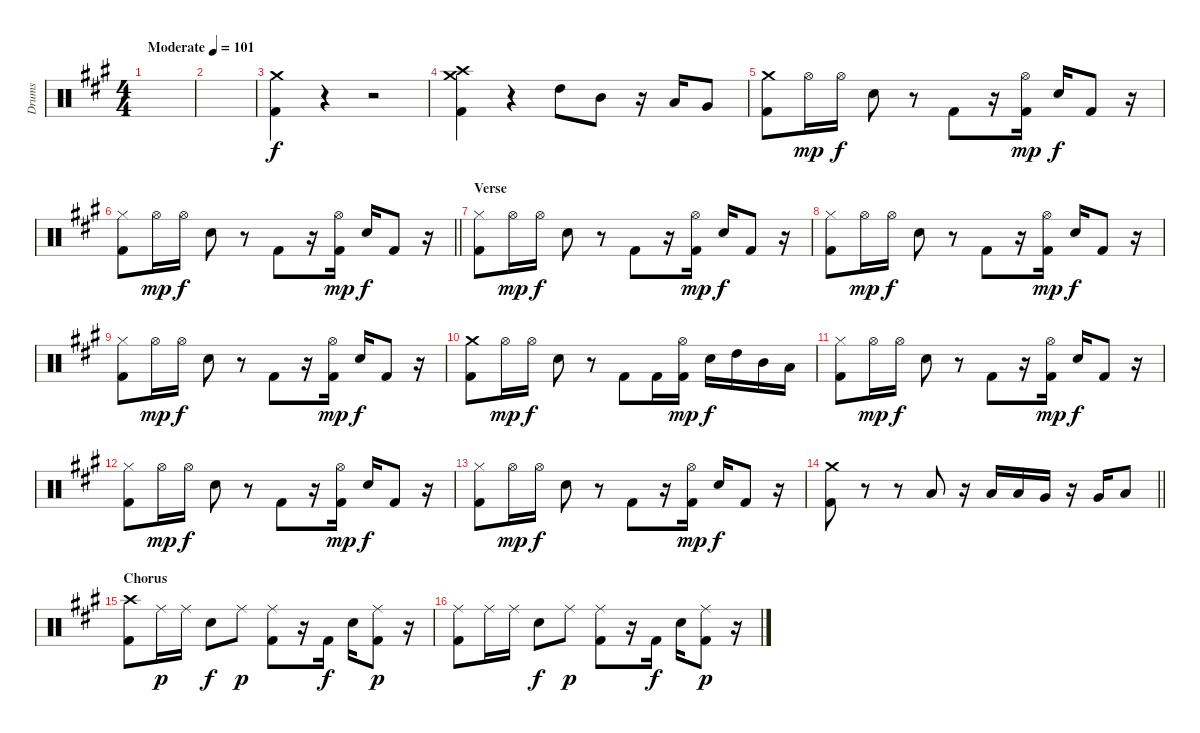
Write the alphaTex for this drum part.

\track ("Drums" "Drums") {instrument percussion}
\staff {score}
\articulation defaults
\ts (4 4)
\tempo (101 "Moderate")
\clef neutral
\ks a
|
|
("Crash medium (hit)" "Kick (hit) 2").4 r.4 r.2 |
("Crash medium (hit)" "Crash high (hit)" "Kick (hit) 2").4 r.4 "High Tom (hit)".8 "Mid Tom (hit)".8 r.16 "Low Tom (hit)".16 "Very Low Tom (hit)".8 |
("Crash medium (hit)" "Kick (hit) 2").8 "Hi-Hat (open)".16{dy mp} "Hi-Hat (open)".16{dy f} "Electric Snare (hit)".8 r.8 "Kick (hit) 2".8 r.16 ("Hi-Hat (open)" "Kick (hit) 2").16{dy mp} "Electric Snare (hit)".16{dy f} "Kick (hit) 2".8 r.16 |
\barLineRight lightlight
("Hi-Hat (closed)" "Kick (hit) 2").8 "Hi-Hat (open)".16{dy mp} "Hi-Hat (open)".16{dy f} "Electric Snare (hit)".8 r.8 "Kick (hit) 2".8 r.16 ("Hi-Hat (open)" "Kick (hit) 2").16{dy mp} "Electric Snare (hit)".16{dy f} "Kick (hit) 2".8 r.16 |
\section ("" "Verse")
("Hi-Hat (closed)" "Kick (hit) 2").8 "Hi-Hat (open)".16{dy mp} "Hi-Hat (open)".16{dy f} "Electric Snare (hit)".8 r.8 "Kick (hit) 2".8 r.16 ("Hi-Hat (open)" "Kick (hit) 2").16{dy mp} "Electric Snare (hit)".16{dy f} "Kick (hit) 2".8 r.16 |
("Hi-Hat (closed)" "Kick (hit) 2").8 "Hi-Hat (open)".16{dy mp} "Hi-Hat (open)".16{dy f} "Electric Snare (hit)".8 r.8 "Kick (hit) 2".8 r.16 ("Hi-Hat (open)" "Kick (hit) 2").16{dy mp} "Electric Snare (hit)".16{dy f} "Kick (hit) 2".8 r.16 |
("Hi-Hat (closed)" "Kick (hit) 2").8 "Hi-Hat (open)".16{dy mp} "Hi-Hat (open)".16{dy f} "Electric Snare (hit)".8 r.8 "Kick (hit) 2".8 r.16 ("Hi-Hat (open)" "Kick (hit) 2").16{dy mp} "Electric Snare (hit)".16{dy f} "Kick (hit) 2".8 r.16 |
("Crash medium (hit)" "Kick (hit) 2").8 "Hi-Hat (open)".16{dy mp} "Hi-Hat (open)".16{dy f} "Electric Snare (hit)".8 r.8 "Kick (hit) 2".8 "Kick (hit) 2".16 ("Hi-Hat (open)" "Kick (hit) 2").16{dy mp} "Electric Snare (hit)".16{dy f} "High Tom (hit)".16 "Mid Tom (hit)".16 "Low Tom (hit)".16 |
("Hi-Hat (closed)" "Kick (hit) 2").8 "Hi-Hat (open)".16{dy mp} "Hi-Hat (open)".16{dy f} "Electric Snare (hit)".8 r.8 "Kick (hit) 2".8 r.16 ("Hi-Hat (open)" "Kick (hit) 2").16{dy mp} "Electric Snare (hit)".16{dy f} "Kick (hit) 2".8 r.16 |
("Hi-Hat (closed)" "Kick (hit) 2").8 "Hi-Hat (open)".16{dy mp} "Hi-Hat (open)".16{dy f} "Electric Snare (hit)".8 r.8 "Kick (hit) 2".8 r.16 ("Hi-Hat (open)" "Kick (hit) 2").16{dy mp} "Electric Snare (hit)".16{dy f} "Kick (hit) 2".8 r.16 |
("Hi-Hat (closed)" "Kick (hit) 2").8 "Hi-Hat (open)".16{dy mp} "Hi-Hat (open)".16{dy f} "Electric Snare (hit)".8 r.8 "Kick (hit) 2".8 r.16 ("Hi-Hat (open)" "Kick (hit) 2").16{dy mp} "Electric Snare (hit)".16{dy f} "Kick (hit) 2".8 r.16 |
\barLineRight lightlight
("Crash medium (hit)" "Kick (hit) 2").8 r.8 r.8 "Low Tom (hit)".8 r.16 "Low Tom (hit)".16 "Low Tom (hit)".16 "Very Low Tom (hit)".16 r.16 "Very Low Tom (hit)".16 "Low Floor Tom (hit)".8 |
\section ("" "Chorus")
("Crash high (hit)" "Kick (hit) 2").8 "Ride (middle)".16{dy p} "Ride (middle)".16 "Electric Snare (hit)".8{dy f} "Ride (middle)".8{dy p} ("Ride (middle)" "Kick (hit) 2").8 r.16 "Kick (hit) 2".16{dy f} "Electric Snare (hit)".16 ("Ride (middle)" "Kick (hit) 2").8{dy p} r.16 |
("Ride (middle)" "Kick (hit) 2").8 "Ride (middle)".16 "Ride (middle)".16 "Electric Snare (hit)".8{dy f} "Ride (middle)".8{dy p} ("Ride (middle)" "Kick (hit) 2").8 r.16 "Kick (hit) 2".16{dy f} "Electric Snare (hit)".16 ("Ride (middle)" "Kick (hit) 2").8{dy p} r.16
